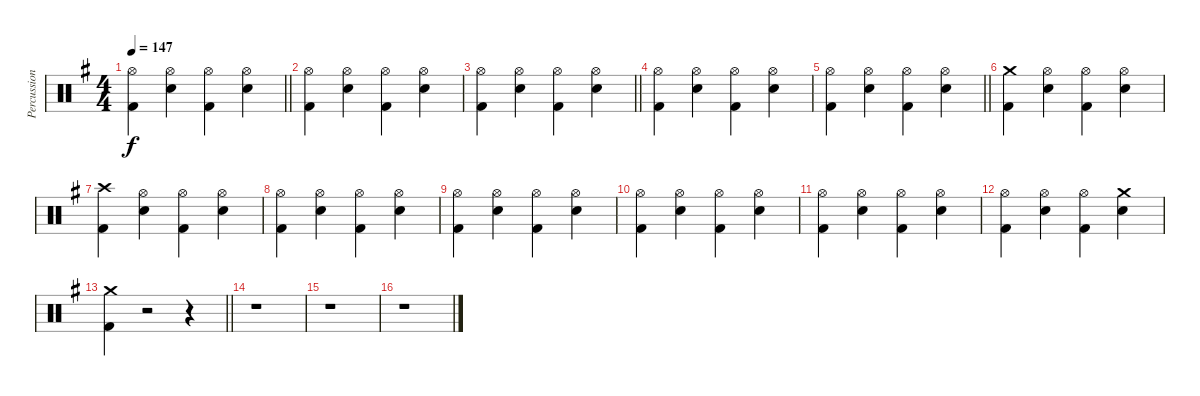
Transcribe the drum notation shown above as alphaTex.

\track ("Percussion" "Percussion") {instrument percussion}
\staff {score}
\articulation defaults
\ts (4 4)
\tempo 147
\clef neutral
\barLineRight lightlight
\ks eminor
("Hi-Hat (open)" "Kick (hit) 2").4{dy f} ("Hi-Hat (open)" "Snare (hit) 2").4 ("Hi-Hat (open)" "Kick (hit) 2").4 ("Hi-Hat (open)" "Snare (hit) 2").4 |
("Hi-Hat (open)" "Kick (hit) 2").4 ("Hi-Hat (open)" "Snare (hit) 2").4 ("Hi-Hat (open)" "Kick (hit) 2").4 ("Hi-Hat (open)" "Snare (hit) 2").4 |
\barLineRight lightlight
("Hi-Hat (open)" "Kick (hit) 2").4 ("Hi-Hat (open)" "Snare (hit) 2").4 ("Hi-Hat (open)" "Kick (hit) 2").4 ("Hi-Hat (open)" "Snare (hit) 2").4 |
("Hi-Hat (open)" "Kick (hit) 2").4 ("Hi-Hat (open)" "Snare (hit) 2").4 ("Hi-Hat (open)" "Kick (hit) 2").4 ("Hi-Hat (open)" "Snare (hit) 2").4 |
\barLineRight lightlight
("Hi-Hat (open)" "Kick (hit) 2").4 ("Hi-Hat (open)" "Snare (hit) 2").4 ("Hi-Hat (open)" "Kick (hit) 2").4 ("Hi-Hat (open)" "Snare (hit) 2").4 |
("Crash medium (hit)" "Kick (hit) 2").4 ("Hi-Hat (open)" "Snare (hit) 2").4 ("Hi-Hat (open)" "Kick (hit) 2").4 ("Hi-Hat (open)" "Snare (hit) 2").4 |
("Crash high (hit)" "Kick (hit) 2").4 ("Hi-Hat (open)" "Snare (hit) 2").4 ("Hi-Hat (open)" "Kick (hit) 2").4 ("Hi-Hat (open)" "Snare (hit) 2").4 |
("Hi-Hat (open)" "Kick (hit) 2").4 ("Hi-Hat (open)" "Snare (hit) 2").4 ("Hi-Hat (open)" "Kick (hit) 2").4 ("Hi-Hat (open)" "Snare (hit) 2").4 |
("Hi-Hat (open)" "Kick (hit) 2").4 ("Hi-Hat (open)" "Snare (hit) 2").4 ("Hi-Hat (open)" "Kick (hit) 2").4 ("Hi-Hat (open)" "Snare (hit) 2").4 |
("Hi-Hat (open)" "Kick (hit) 2").4 ("Hi-Hat (open)" "Snare (hit) 2").4 ("Hi-Hat (open)" "Kick (hit) 2").4 ("Hi-Hat (open)" "Snare (hit) 2").4 |
("Hi-Hat (open)" "Kick (hit) 2").4 ("Hi-Hat (open)" "Snare (hit) 2").4 ("Hi-Hat (open)" "Kick (hit) 2").4 ("Hi-Hat (open)" "Snare (hit) 2").4 |
("Hi-Hat (open)" "Kick (hit) 2").4 ("Hi-Hat (open)" "Snare (hit) 2").4 ("Hi-Hat (open)" "Kick (hit) 2").4 ("Crash medium (hit)" "Snare (hit) 2").4 |
\barLineRight lightlight
("Crash medium (hit)" "Kick (hit) 2").4 r.2 r.4 |
r.1 |
r.1 |
r.1
